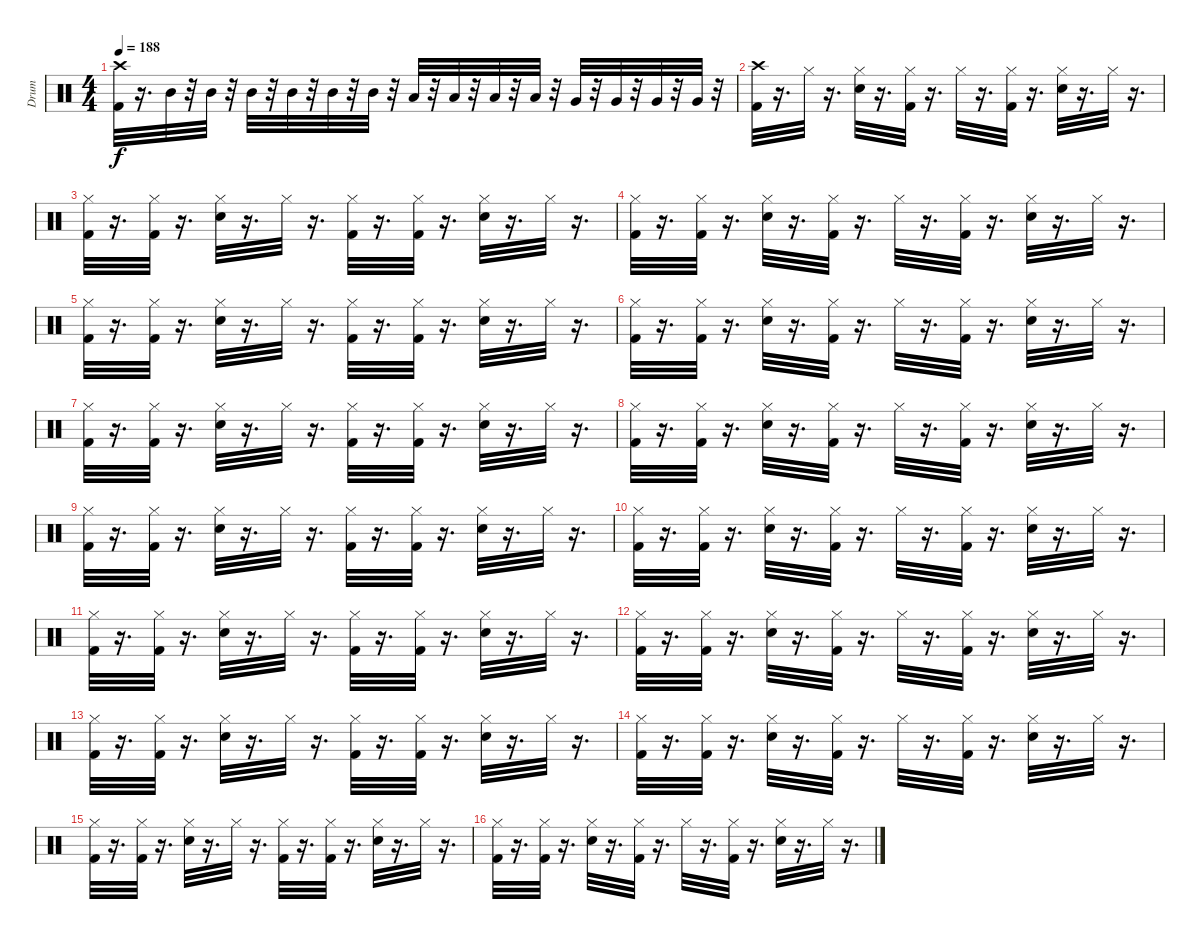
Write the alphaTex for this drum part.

\track ("Drum" "Drum") {instrument percussion}
\staff {score}
\articulation defaults
\ts (4 4)
\tempo 188
\clef neutral
\ks c
("Crash high (hit)" "Kick (hit) 2").32{dy f} r.16{d} "Mid Tom (hit)".32 r.32 "Mid Tom (hit)".32 r.32 "Mid Tom (hit)".32 r.32 "Mid Tom (hit)".32 r.32 "Mid Tom (hit)".32 r.32 "Mid Tom (hit)".32 r.32 "Low Tom (hit)".32 r.32 "Low Tom (hit)".32 r.32 "Low Tom (hit)".32 r.32 "Low Tom (hit)".32 r.32 "Very Low Tom (hit)".32 r.32 "Very Low Tom (hit)".32 r.32 "Very Low Tom (hit)".32 r.32 "Very Low Tom (hit)".32 r.32 |
("Kick (hit) 2" "Crash high (hit)").32 r.16{d} "Hi-Hat (closed)".32 r.16{d} ("Hi-Hat (closed)" "Snare (hit) 2").32 r.16{d} ("Hi-Hat (closed)" "Kick (hit) 2").32 r.16{d} "Hi-Hat (closed)".32 r.16{d} ("Hi-Hat (closed)" "Kick (hit) 2").32 r.16{d} ("Hi-Hat (closed)" "Snare (hit) 2").32 r.16{d} "Hi-Hat (closed)".32 r.16{d} |
("Hi-Hat (closed)" "Kick (hit) 2").32 r.16{d} ("Hi-Hat (closed)" "Kick (hit) 2").32 r.16{d} ("Hi-Hat (closed)" "Snare (hit) 2").32 r.16{d} "Hi-Hat (closed)".32 r.16{d} ("Hi-Hat (closed)" "Kick (hit) 2").32 r.16{d} ("Hi-Hat (closed)" "Kick (hit) 2").32 r.16{d} ("Hi-Hat (closed)" "Snare (hit) 2").32 r.16{d} "Hi-Hat (closed)".32 r.16{d} |
("Hi-Hat (closed)" "Kick (hit) 2").32 r.16{d} ("Hi-Hat (closed)" "Kick (hit) 2").32 r.16{d} ("Hi-Hat (closed)" "Snare (hit) 2").32 r.16{d} ("Hi-Hat (closed)" "Kick (hit) 2").32 r.16{d} "Hi-Hat (closed)".32 r.16{d} ("Hi-Hat (closed)" "Kick (hit) 2").32 r.16{d} ("Hi-Hat (closed)" "Snare (hit) 2").32 r.16{d} "Hi-Hat (closed)".32 r.16{d} |
("Hi-Hat (closed)" "Kick (hit) 2").32 r.16{d} ("Hi-Hat (closed)" "Kick (hit) 2").32 r.16{d} ("Hi-Hat (closed)" "Snare (hit) 2").32 r.16{d} "Hi-Hat (closed)".32 r.16{d} ("Hi-Hat (closed)" "Kick (hit) 2").32 r.16{d} ("Hi-Hat (closed)" "Kick (hit) 2").32 r.16{d} ("Hi-Hat (closed)" "Snare (hit) 2").32 r.16{d} "Hi-Hat (closed)".32 r.16{d} |
("Hi-Hat (closed)" "Kick (hit) 2").32 r.16{d} ("Hi-Hat (closed)" "Kick (hit) 2").32 r.16{d} ("Hi-Hat (closed)" "Snare (hit) 2").32 r.16{d} ("Hi-Hat (closed)" "Kick (hit) 2").32 r.16{d} "Hi-Hat (closed)".32 r.16{d} ("Hi-Hat (closed)" "Kick (hit) 2").32 r.16{d} ("Hi-Hat (closed)" "Snare (hit) 2").32 r.16{d} "Hi-Hat (closed)".32 r.16{d} |
("Hi-Hat (closed)" "Kick (hit) 2").32 r.16{d} ("Hi-Hat (closed)" "Kick (hit) 2").32 r.16{d} ("Hi-Hat (closed)" "Snare (hit) 2").32 r.16{d} "Hi-Hat (closed)".32 r.16{d} ("Hi-Hat (closed)" "Kick (hit) 2").32 r.16{d} ("Hi-Hat (closed)" "Kick (hit) 2").32 r.16{d} ("Hi-Hat (closed)" "Snare (hit) 2").32 r.16{d} "Hi-Hat (closed)".32 r.16{d} |
("Hi-Hat (closed)" "Kick (hit) 2").32 r.16{d} ("Hi-Hat (closed)" "Kick (hit) 2").32 r.16{d} ("Hi-Hat (closed)" "Snare (hit) 2").32 r.16{d} ("Hi-Hat (closed)" "Kick (hit) 2").32 r.16{d} "Hi-Hat (closed)".32 r.16{d} ("Hi-Hat (closed)" "Kick (hit) 2").32 r.16{d} ("Hi-Hat (closed)" "Snare (hit) 2").32 r.16{d} "Hi-Hat (closed)".32 r.16{d} |
("Hi-Hat (closed)" "Kick (hit) 2").32 r.16{d} ("Hi-Hat (closed)" "Kick (hit) 2").32 r.16{d} ("Hi-Hat (closed)" "Snare (hit) 2").32 r.16{d} "Hi-Hat (closed)".32 r.16{d} ("Hi-Hat (closed)" "Kick (hit) 2").32 r.16{d} ("Hi-Hat (closed)" "Kick (hit) 2").32 r.16{d} ("Hi-Hat (closed)" "Snare (hit) 2").32 r.16{d} "Hi-Hat (closed)".32 r.16{d} |
("Hi-Hat (closed)" "Kick (hit) 2").32 r.16{d} ("Hi-Hat (closed)" "Kick (hit) 2").32 r.16{d} ("Hi-Hat (closed)" "Snare (hit) 2").32 r.16{d} ("Hi-Hat (closed)" "Kick (hit) 2").32 r.16{d} "Hi-Hat (closed)".32 r.16{d} ("Hi-Hat (closed)" "Kick (hit) 2").32 r.16{d} ("Hi-Hat (closed)" "Snare (hit) 2").32 r.16{d} "Hi-Hat (closed)".32 r.16{d} |
("Hi-Hat (closed)" "Kick (hit) 2").32 r.16{d} ("Hi-Hat (closed)" "Kick (hit) 2").32 r.16{d} ("Hi-Hat (closed)" "Snare (hit) 2").32 r.16{d} "Hi-Hat (closed)".32 r.16{d} ("Hi-Hat (closed)" "Kick (hit) 2").32 r.16{d} ("Hi-Hat (closed)" "Kick (hit) 2").32 r.16{d} ("Hi-Hat (closed)" "Snare (hit) 2").32 r.16{d} "Hi-Hat (closed)".32 r.16{d} |
("Hi-Hat (closed)" "Kick (hit) 2").32 r.16{d} ("Hi-Hat (closed)" "Kick (hit) 2").32 r.16{d} ("Hi-Hat (closed)" "Snare (hit) 2").32 r.16{d} ("Hi-Hat (closed)" "Kick (hit) 2").32 r.16{d} "Hi-Hat (closed)".32 r.16{d} ("Hi-Hat (closed)" "Kick (hit) 2").32 r.16{d} ("Hi-Hat (closed)" "Snare (hit) 2").32 r.16{d} "Hi-Hat (closed)".32 r.16{d} |
("Hi-Hat (closed)" "Kick (hit) 2").32 r.16{d} ("Hi-Hat (closed)" "Kick (hit) 2").32 r.16{d} ("Hi-Hat (closed)" "Snare (hit) 2").32 r.16{d} "Hi-Hat (closed)".32 r.16{d} ("Hi-Hat (closed)" "Kick (hit) 2").32 r.16{d} ("Hi-Hat (closed)" "Kick (hit) 2").32 r.16{d} ("Hi-Hat (closed)" "Snare (hit) 2").32 r.16{d} "Hi-Hat (closed)".32 r.16{d} |
("Hi-Hat (closed)" "Kick (hit) 2").32 r.16{d} ("Hi-Hat (closed)" "Kick (hit) 2").32 r.16{d} ("Hi-Hat (closed)" "Snare (hit) 2").32 r.16{d} ("Hi-Hat (closed)" "Kick (hit) 2").32 r.16{d} "Hi-Hat (closed)".32 r.16{d} ("Hi-Hat (closed)" "Kick (hit) 2").32 r.16{d} ("Hi-Hat (closed)" "Snare (hit) 2").32 r.16{d} "Hi-Hat (closed)".32 r.16{d} |
("Hi-Hat (closed)" "Kick (hit) 2").32 r.16{d} ("Hi-Hat (closed)" "Kick (hit) 2").32 r.16{d} ("Hi-Hat (closed)" "Snare (hit) 2").32 r.16{d} "Hi-Hat (closed)".32 r.16{d} ("Hi-Hat (closed)" "Kick (hit) 2").32 r.16{d} ("Hi-Hat (closed)" "Kick (hit) 2").32 r.16{d} ("Hi-Hat (closed)" "Snare (hit) 2").32 r.16{d} "Hi-Hat (closed)".32 r.16{d} |
("Hi-Hat (closed)" "Kick (hit) 2").32 r.16{d} ("Hi-Hat (closed)" "Kick (hit) 2").32 r.16{d} ("Hi-Hat (closed)" "Snare (hit) 2").32 r.16{d} ("Hi-Hat (closed)" "Kick (hit) 2").32 r.16{d} "Hi-Hat (closed)".32 r.16{d} ("Hi-Hat (closed)" "Kick (hit) 2").32 r.16{d} ("Hi-Hat (closed)" "Snare (hit) 2").32 r.16{d} "Hi-Hat (closed)".32 r.16{d}
